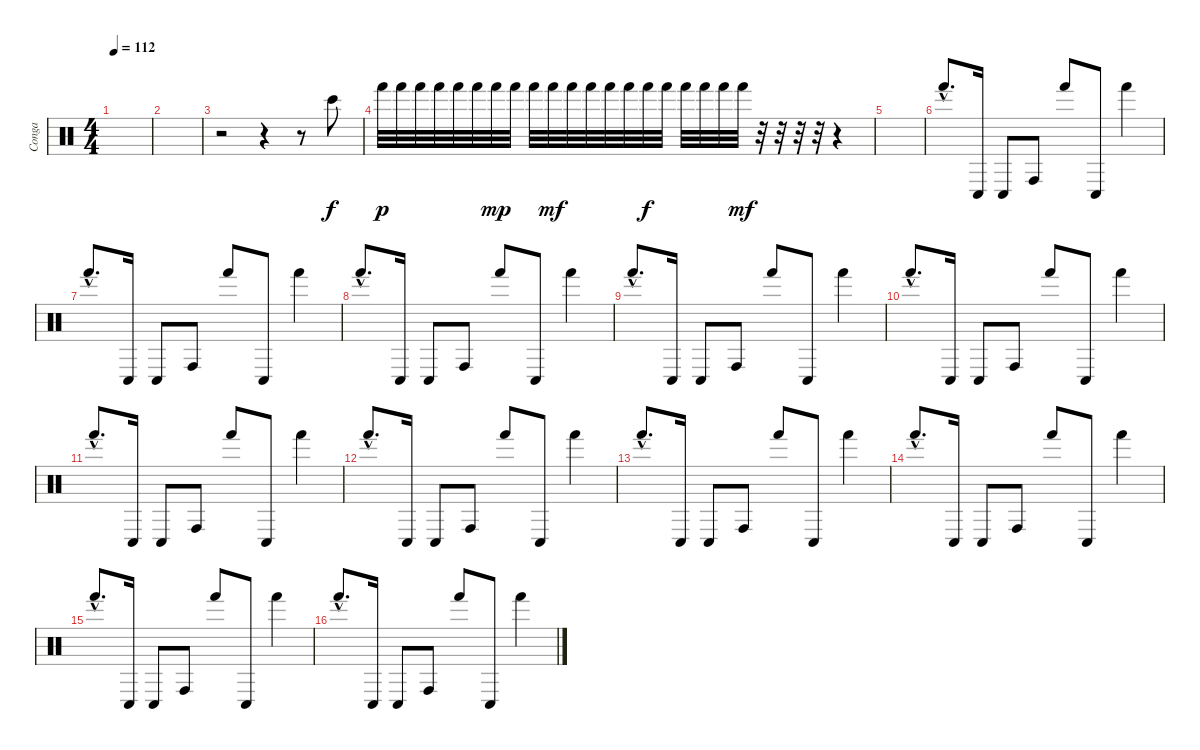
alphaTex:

\track ("Conga" "Conga") {instrument percussion}
\staff {score}
\articulation defaults
\ts (4 4)
\tempo 112
\clef neutral
\ks c
|
|
r.2 r.4 r.8 "Bongo High (hit)".8 |
"Hand (hit)".32{dy p} "Hand (hit)".32 "Hand (hit)".32 "Hand (hit)".32 "Hand (hit)".32 "Hand (hit)".32 "Hand (hit)".32{dy mp} "Hand (hit)".32 "Hand (hit)".32 "Hand (hit)".32{dy mf} "Hand (hit)".32 "Hand (hit)".32 "Hand (hit)".32 "Hand (hit)".32 "Hand (hit)".32{dy f} "Hand (hit)".32 "Hand (hit)".32 "Hand (hit)".32 "Hand (hit)".32 "Hand (hit)".32{dy mf} r.32 r.32 r.32 r.32 r.4 |
|
"Hand (hit)"{hac}.8{d} "Conga low (hit)".16 "Conga low (hit)".8 "Conga high (hit)".8 "Hand (hit)".8 "Conga low (hit)".8 "Hand (hit)".4 |
"Hand (hit)"{hac}.8{d} "Conga low (hit)".16 "Conga low (hit)".8 "Conga high (hit)".8 "Hand (hit)".8 "Conga low (hit)".8 "Hand (hit)".4 |
"Hand (hit)"{hac}.8{d} "Conga low (hit)".16 "Conga low (hit)".8 "Conga high (hit)".8 "Hand (hit)".8 "Conga low (hit)".8 "Hand (hit)".4 |
"Hand (hit)"{hac}.8{d} "Conga low (hit)".16 "Conga low (hit)".8 "Conga high (hit)".8 "Hand (hit)".8 "Conga low (hit)".8 "Hand (hit)".4 |
"Hand (hit)"{hac}.8{d} "Conga low (hit)".16 "Conga low (hit)".8 "Conga high (hit)".8 "Hand (hit)".8 "Conga low (hit)".8 "Hand (hit)".4 |
"Hand (hit)"{hac}.8{d} "Conga low (hit)".16 "Conga low (hit)".8 "Conga high (hit)".8 "Hand (hit)".8 "Conga low (hit)".8 "Hand (hit)".4 |
"Hand (hit)"{hac}.8{d} "Conga low (hit)".16 "Conga low (hit)".8 "Conga high (hit)".8 "Hand (hit)".8 "Conga low (hit)".8 "Hand (hit)".4 |
"Hand (hit)"{hac}.8{d} "Conga low (hit)".16 "Conga low (hit)".8 "Conga high (hit)".8 "Hand (hit)".8 "Conga low (hit)".8 "Hand (hit)".4 |
"Hand (hit)"{hac}.8{d} "Conga low (hit)".16 "Conga low (hit)".8 "Conga high (hit)".8 "Hand (hit)".8 "Conga low (hit)".8 "Hand (hit)".4 |
"Hand (hit)"{hac}.8{d} "Conga low (hit)".16 "Conga low (hit)".8 "Conga high (hit)".8 "Hand (hit)".8 "Conga low (hit)".8 "Hand (hit)".4 |
"Hand (hit)"{hac}.8{d} "Conga low (hit)".16 "Conga low (hit)".8 "Conga high (hit)".8 "Hand (hit)".8 "Conga low (hit)".8 "Hand (hit)".4
